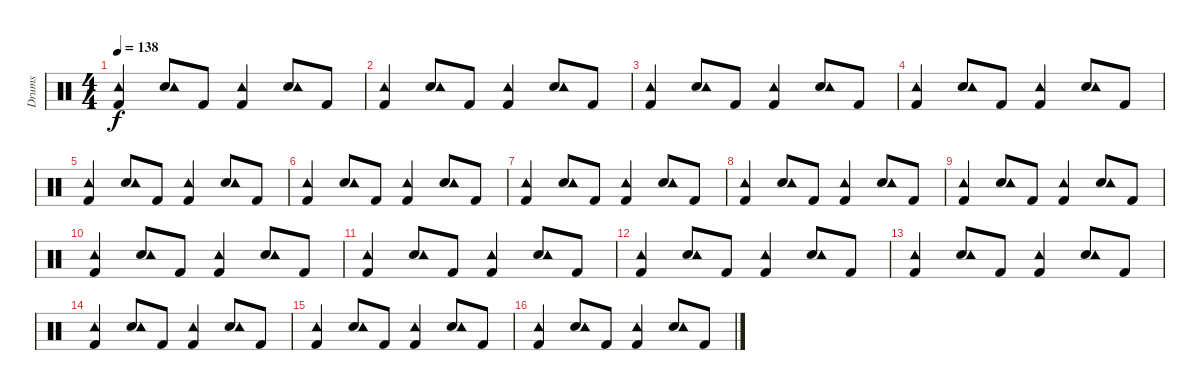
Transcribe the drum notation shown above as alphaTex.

\track ("Drums" "Drums") {instrument percussion}
\staff {score}
\articulation defaults
\ts (4 4)
\tempo 138
\clef neutral
\ks c
("Kick (hit) 2" "Tambourine (hit)").4{dy f} ("Snare (hit) 2" "Tambourine (hit)").8 "Kick (hit) 2".8 ("Kick (hit) 2" "Tambourine (hit)").4 ("Snare (hit) 2" "Tambourine (hit)").8 "Kick (hit) 2".8 |
("Kick (hit) 2" "Tambourine (hit)").4 ("Snare (hit) 2" "Tambourine (hit)").8 "Kick (hit) 2".8 ("Kick (hit) 2" "Tambourine (hit)").4 ("Snare (hit) 2" "Tambourine (hit)").8 "Kick (hit) 2".8 |
("Kick (hit) 2" "Tambourine (hit)").4 ("Snare (hit) 2" "Tambourine (hit)").8 "Kick (hit) 2".8 ("Kick (hit) 2" "Tambourine (hit)").4 ("Snare (hit) 2" "Tambourine (hit)").8 "Kick (hit) 2".8 |
("Kick (hit) 2" "Tambourine (hit)").4 ("Snare (hit) 2" "Tambourine (hit)").8 "Kick (hit) 2".8 ("Kick (hit) 2" "Tambourine (hit)").4 ("Snare (hit) 2" "Tambourine (hit)").8 "Kick (hit) 2".8 |
("Kick (hit) 2" "Tambourine (hit)").4 ("Snare (hit) 2" "Tambourine (hit)").8 "Kick (hit) 2".8 ("Kick (hit) 2" "Tambourine (hit)").4 ("Snare (hit) 2" "Tambourine (hit)").8 "Kick (hit) 2".8 |
("Kick (hit) 2" "Tambourine (hit)").4 ("Snare (hit) 2" "Tambourine (hit)").8 "Kick (hit) 2".8 ("Kick (hit) 2" "Tambourine (hit)").4 ("Snare (hit) 2" "Tambourine (hit)").8 "Kick (hit) 2".8 |
("Kick (hit) 2" "Tambourine (hit)").4 ("Snare (hit) 2" "Tambourine (hit)").8 "Kick (hit) 2".8 ("Kick (hit) 2" "Tambourine (hit)").4 ("Snare (hit) 2" "Tambourine (hit)").8 "Kick (hit) 2".8 |
("Kick (hit) 2" "Tambourine (hit)").4 ("Snare (hit) 2" "Tambourine (hit)").8 "Kick (hit) 2".8 ("Kick (hit) 2" "Tambourine (hit)").4 ("Snare (hit) 2" "Tambourine (hit)").8 "Kick (hit) 2".8 |
("Kick (hit) 2" "Tambourine (hit)").4 ("Snare (hit) 2" "Tambourine (hit)").8 "Kick (hit) 2".8 ("Kick (hit) 2" "Tambourine (hit)").4 ("Snare (hit) 2" "Tambourine (hit)").8 "Kick (hit) 2".8 |
("Kick (hit) 2" "Tambourine (hit)").4 ("Snare (hit) 2" "Tambourine (hit)").8 "Kick (hit) 2".8 ("Kick (hit) 2" "Tambourine (hit)").4 ("Snare (hit) 2" "Tambourine (hit)").8 "Kick (hit) 2".8 |
("Kick (hit) 2" "Tambourine (hit)").4 ("Snare (hit) 2" "Tambourine (hit)").8 "Kick (hit) 2".8 ("Kick (hit) 2" "Tambourine (hit)").4 ("Snare (hit) 2" "Tambourine (hit)").8 "Kick (hit) 2".8 |
("Kick (hit) 2" "Tambourine (hit)").4 ("Snare (hit) 2" "Tambourine (hit)").8 "Kick (hit) 2".8 ("Kick (hit) 2" "Tambourine (hit)").4 ("Snare (hit) 2" "Tambourine (hit)").8 "Kick (hit) 2".8 |
("Kick (hit) 2" "Tambourine (hit)").4 ("Snare (hit) 2" "Tambourine (hit)").8 "Kick (hit) 2".8 ("Kick (hit) 2" "Tambourine (hit)").4 ("Snare (hit) 2" "Tambourine (hit)").8 "Kick (hit) 2".8 |
("Kick (hit) 2" "Tambourine (hit)").4 ("Snare (hit) 2" "Tambourine (hit)").8 "Kick (hit) 2".8 ("Kick (hit) 2" "Tambourine (hit)").4 ("Snare (hit) 2" "Tambourine (hit)").8 "Kick (hit) 2".8 |
("Kick (hit) 2" "Tambourine (hit)").4 ("Snare (hit) 2" "Tambourine (hit)").8 "Kick (hit) 2".8 ("Kick (hit) 2" "Tambourine (hit)").4 ("Snare (hit) 2" "Tambourine (hit)").8 "Kick (hit) 2".8 |
("Kick (hit) 2" "Tambourine (hit)").4 ("Snare (hit) 2" "Tambourine (hit)").8 "Kick (hit) 2".8 ("Kick (hit) 2" "Tambourine (hit)").4 ("Snare (hit) 2" "Tambourine (hit)").8 "Kick (hit) 2".8
